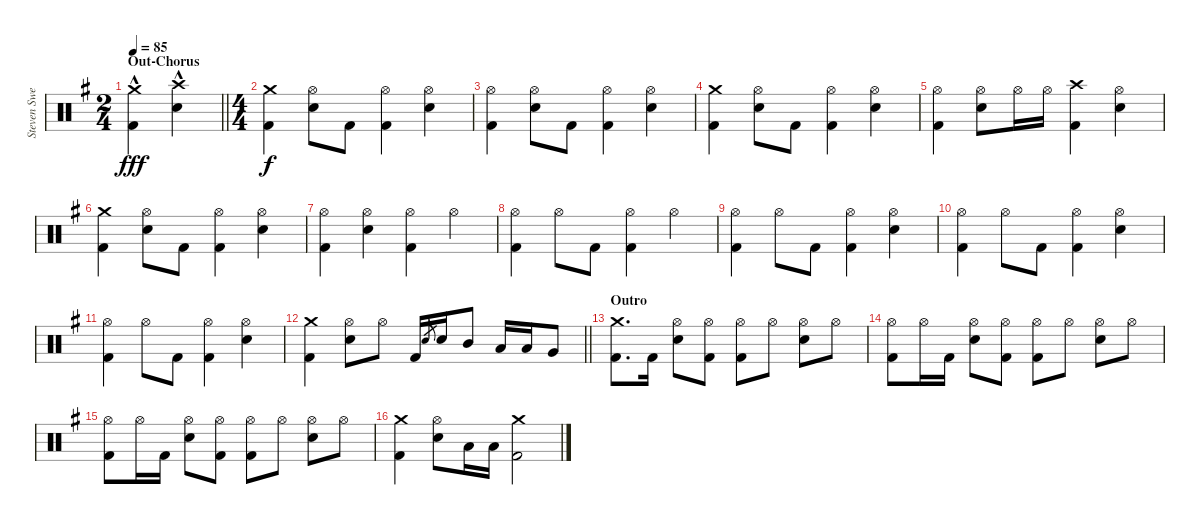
\track ("Steven Sweet" "Steven Swe") {instrument percussion}
\staff {score}
\articulation defaults
\ts (2 4)
\section ("" "Out-Chorus")
\tempo 85
\clef neutral
\barLineRight lightlight
\ks g
("Crash medium (hit)"{hac} "Kick (hit) 2"{hac}).4{dy fff} ("Crash high (hit)"{hac} "Snare (hit) 2"{hac}).4 |
\ts (4 4)
("Crash medium (hit)" "Kick (hit) 2").4{dy f} ("Hi-Hat (open)" "Snare (hit) 2").8 "Kick (hit) 2".8 ("Hi-Hat (open)" "Kick (hit) 2").4 ("Hi-Hat (open)" "Snare (hit) 2").4 |
("Hi-Hat (open)" "Kick (hit) 2").4 ("Hi-Hat (open)" "Snare (hit) 2").8 "Kick (hit) 2".8 ("Hi-Hat (open)" "Kick (hit) 2").4 ("Hi-Hat (open)" "Snare (hit) 2").4 |
("Crash medium (hit)" "Kick (hit) 2").4 ("Hi-Hat (open)" "Snare (hit) 2").8 "Kick (hit) 2".8 ("Hi-Hat (open)" "Kick (hit) 2").4 ("Hi-Hat (open)" "Snare (hit) 2").4 |
("Hi-Hat (open)" "Kick (hit) 2").4 ("Hi-Hat (open)" "Snare (hit) 2").8 "Hi-Hat (open)".16 "Hi-Hat (open)".16 ("Crash high (hit)" "Kick (hit) 2").4 ("Hi-Hat (open)" "Snare (hit) 2").4 |
("Crash medium (hit)" "Kick (hit) 2").4 ("Hi-Hat (open)" "Snare (hit) 2").8 "Kick (hit) 2".8 ("Hi-Hat (open)" "Kick (hit) 2").4 ("Hi-Hat (open)" "Snare (hit) 2").4 |
("Hi-Hat (open)" "Kick (hit) 2").4 ("Hi-Hat (open)" "Snare (hit) 2").4 ("Hi-Hat (open)" "Kick (hit) 2").4 "Hi-Hat (open)".4 |
("Hi-Hat (open)" "Kick (hit) 2").4 "Hi-Hat (open)".8 "Kick (hit) 2".8 ("Hi-Hat (open)" "Kick (hit) 2").4 "Hi-Hat (open)".4 |
("Hi-Hat (open)" "Kick (hit) 2").4 "Hi-Hat (open)".8 "Kick (hit) 2".8 ("Hi-Hat (open)" "Kick (hit) 2").4 ("Hi-Hat (open)" "Snare (hit) 2").4 |
("Hi-Hat (open)" "Kick (hit) 2").4 "Hi-Hat (open)".8 "Kick (hit) 2".8 ("Hi-Hat (open)" "Kick (hit) 2").4 ("Hi-Hat (open)" "Snare (hit) 2").4 |
("Hi-Hat (open)" "Kick (hit) 2").4 "Hi-Hat (open)".8 "Kick (hit) 2".8 ("Hi-Hat (open)" "Kick (hit) 2").4 ("Hi-Hat (open)" "Snare (hit) 2").4 |
\barLineRight lightlight
("Crash medium (hit)" "Kick (hit) 2").4 ("Hi-Hat (open)" "Snare (hit) 2").8 "Hi-Hat (open)".8 "Kick (hit) 2".16 "Snare (hit) 2".8{gr} "Snare (hit) 2".16 "Mid Tom (hit)".8 "Low Tom (hit)".16 "Low Tom (hit)".16 "Very Low Tom (hit)".8 |
\section ("" "Outro")
("Crash medium (hit)" "Kick (hit) 2").8{d} "Kick (hit) 2".16 ("Hi-Hat (open)" "Snare (hit) 2").8 ("Hi-Hat (open)" "Kick (hit) 2").8 ("Hi-Hat (open)" "Kick (hit) 2").8 "Hi-Hat (open)".8 ("Hi-Hat (open)" "Snare (hit) 2").8 "Hi-Hat (open)".8 |
("Hi-Hat (open)" "Kick (hit) 2").8 "Hi-Hat (open)".16 "Kick (hit) 2".16 ("Hi-Hat (open)" "Snare (hit) 2").8 ("Hi-Hat (open)" "Kick (hit) 2").8 ("Hi-Hat (open)" "Kick (hit) 2").8 "Hi-Hat (open)".8 ("Hi-Hat (open)" "Snare (hit) 2").8 "Hi-Hat (open)".8 |
("Hi-Hat (open)" "Kick (hit) 2").8 "Hi-Hat (open)".16 "Kick (hit) 2".16 ("Hi-Hat (open)" "Snare (hit) 2").8 ("Hi-Hat (open)" "Kick (hit) 2").8 ("Hi-Hat (open)" "Kick (hit) 2").8 "Hi-Hat (open)".8 ("Hi-Hat (open)" "Snare (hit) 2").8 "Hi-Hat (open)".8 |
("Crash medium (hit)" "Kick (hit) 2").4 ("Hi-Hat (open)" "Snare (hit) 2").8 "Low Tom (hit)".16 "Low Tom (hit)".16 ("Crash medium (hit)" "Kick (hit) 2").2
